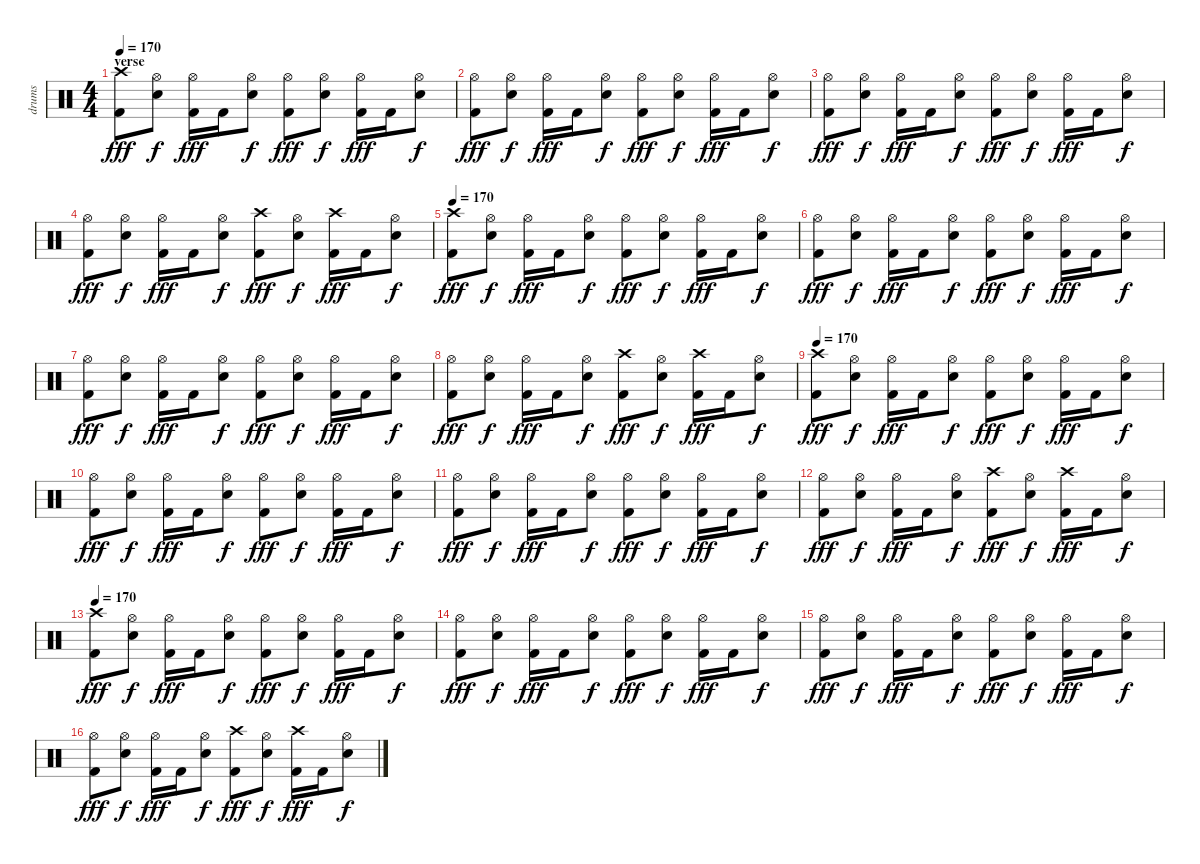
\track ("drums" "drums") {instrument percussion}
\staff {score}
\articulation defaults
\ts (4 4)
\section ("" "verse")
\tempo 170
\clef neutral
\ks c
("Crash high (hit)" "Kick (hit) 2").8{dy fff} ("Hi-Hat (open)" "Snare (hit) 2").8{dy f} ("Hi-Hat (open)" "Kick (hit) 2").16{dy fff} "Kick (hit) 2".16 ("Hi-Hat (open)" "Snare (hit) 2").8{dy f} ("Hi-Hat (open)" "Kick (hit) 2").8{dy fff} ("Hi-Hat (open)" "Snare (hit) 2").8{dy f} ("Hi-Hat (open)" "Kick (hit) 2").16{dy fff} "Kick (hit) 2".16 ("Hi-Hat (open)" "Snare (hit) 2").8{dy f} |
("Hi-Hat (open)" "Kick (hit) 2").8{dy fff} ("Hi-Hat (open)" "Snare (hit) 2").8{dy f} ("Hi-Hat (open)" "Kick (hit) 2").16{dy fff} "Kick (hit) 2".16 ("Hi-Hat (open)" "Snare (hit) 2").8{dy f} ("Hi-Hat (open)" "Kick (hit) 2").8{dy fff} ("Hi-Hat (open)" "Snare (hit) 2").8{dy f} ("Hi-Hat (open)" "Kick (hit) 2").16{dy fff} "Kick (hit) 2".16 ("Hi-Hat (open)" "Snare (hit) 2").8{dy f} |
("Hi-Hat (open)" "Kick (hit) 2").8{dy fff} ("Hi-Hat (open)" "Snare (hit) 2").8{dy f} ("Hi-Hat (open)" "Kick (hit) 2").16{dy fff} "Kick (hit) 2".16 ("Hi-Hat (open)" "Snare (hit) 2").8{dy f} ("Hi-Hat (open)" "Kick (hit) 2").8{dy fff} ("Hi-Hat (open)" "Snare (hit) 2").8{dy f} ("Hi-Hat (open)" "Kick (hit) 2").16{dy fff} "Kick (hit) 2".16 ("Hi-Hat (open)" "Snare (hit) 2").8{dy f} |
("Hi-Hat (open)" "Kick (hit) 2").8{dy fff} ("Hi-Hat (open)" "Snare (hit) 2").8{dy f} ("Hi-Hat (open)" "Kick (hit) 2").16{dy fff} "Kick (hit) 2".16 ("Hi-Hat (open)" "Snare (hit) 2").8{dy f} ("Crash high (hit)" "Kick (hit) 2").8{dy fff} ("Hi-Hat (open)" "Snare (hit) 2").8{dy f} ("Crash high (hit)" "Kick (hit) 2").16{dy fff} "Kick (hit) 2".16 ("Hi-Hat (open)" "Snare (hit) 2").8{dy f} |
\tempo 170
("Crash high (hit)" "Kick (hit) 2").8{dy fff} ("Hi-Hat (open)" "Snare (hit) 2").8{dy f} ("Hi-Hat (open)" "Kick (hit) 2").16{dy fff} "Kick (hit) 2".16 ("Hi-Hat (open)" "Snare (hit) 2").8{dy f} ("Hi-Hat (open)" "Kick (hit) 2").8{dy fff} ("Hi-Hat (open)" "Snare (hit) 2").8{dy f} ("Hi-Hat (open)" "Kick (hit) 2").16{dy fff} "Kick (hit) 2".16 ("Hi-Hat (open)" "Snare (hit) 2").8{dy f} |
("Hi-Hat (open)" "Kick (hit) 2").8{dy fff} ("Hi-Hat (open)" "Snare (hit) 2").8{dy f} ("Hi-Hat (open)" "Kick (hit) 2").16{dy fff} "Kick (hit) 2".16 ("Hi-Hat (open)" "Snare (hit) 2").8{dy f} ("Hi-Hat (open)" "Kick (hit) 2").8{dy fff} ("Hi-Hat (open)" "Snare (hit) 2").8{dy f} ("Hi-Hat (open)" "Kick (hit) 2").16{dy fff} "Kick (hit) 2".16 ("Hi-Hat (open)" "Snare (hit) 2").8{dy f} |
("Hi-Hat (open)" "Kick (hit) 2").8{dy fff} ("Hi-Hat (open)" "Snare (hit) 2").8{dy f} ("Hi-Hat (open)" "Kick (hit) 2").16{dy fff} "Kick (hit) 2".16 ("Hi-Hat (open)" "Snare (hit) 2").8{dy f} ("Hi-Hat (open)" "Kick (hit) 2").8{dy fff} ("Hi-Hat (open)" "Snare (hit) 2").8{dy f} ("Hi-Hat (open)" "Kick (hit) 2").16{dy fff} "Kick (hit) 2".16 ("Hi-Hat (open)" "Snare (hit) 2").8{dy f} |
("Hi-Hat (open)" "Kick (hit) 2").8{dy fff} ("Hi-Hat (open)" "Snare (hit) 2").8{dy f} ("Hi-Hat (open)" "Kick (hit) 2").16{dy fff} "Kick (hit) 2".16 ("Hi-Hat (open)" "Snare (hit) 2").8{dy f} ("Crash high (hit)" "Kick (hit) 2").8{dy fff} ("Hi-Hat (open)" "Snare (hit) 2").8{dy f} ("Crash high (hit)" "Kick (hit) 2").16{dy fff} "Kick (hit) 2".16 ("Hi-Hat (open)" "Snare (hit) 2").8{dy f} |
\tempo 170
("Crash high (hit)" "Kick (hit) 2").8{dy fff} ("Hi-Hat (open)" "Snare (hit) 2").8{dy f} ("Hi-Hat (open)" "Kick (hit) 2").16{dy fff} "Kick (hit) 2".16 ("Hi-Hat (open)" "Snare (hit) 2").8{dy f} ("Hi-Hat (open)" "Kick (hit) 2").8{dy fff} ("Hi-Hat (open)" "Snare (hit) 2").8{dy f} ("Hi-Hat (open)" "Kick (hit) 2").16{dy fff} "Kick (hit) 2".16 ("Hi-Hat (open)" "Snare (hit) 2").8{dy f} |
("Hi-Hat (open)" "Kick (hit) 2").8{dy fff} ("Hi-Hat (open)" "Snare (hit) 2").8{dy f} ("Hi-Hat (open)" "Kick (hit) 2").16{dy fff} "Kick (hit) 2".16 ("Hi-Hat (open)" "Snare (hit) 2").8{dy f} ("Hi-Hat (open)" "Kick (hit) 2").8{dy fff} ("Hi-Hat (open)" "Snare (hit) 2").8{dy f} ("Hi-Hat (open)" "Kick (hit) 2").16{dy fff} "Kick (hit) 2".16 ("Hi-Hat (open)" "Snare (hit) 2").8{dy f} |
("Hi-Hat (open)" "Kick (hit) 2").8{dy fff} ("Hi-Hat (open)" "Snare (hit) 2").8{dy f} ("Hi-Hat (open)" "Kick (hit) 2").16{dy fff} "Kick (hit) 2".16 ("Hi-Hat (open)" "Snare (hit) 2").8{dy f} ("Hi-Hat (open)" "Kick (hit) 2").8{dy fff} ("Hi-Hat (open)" "Snare (hit) 2").8{dy f} ("Hi-Hat (open)" "Kick (hit) 2").16{dy fff} "Kick (hit) 2".16 ("Hi-Hat (open)" "Snare (hit) 2").8{dy f} |
("Hi-Hat (open)" "Kick (hit) 2").8{dy fff} ("Hi-Hat (open)" "Snare (hit) 2").8{dy f} ("Hi-Hat (open)" "Kick (hit) 2").16{dy fff} "Kick (hit) 2".16 ("Hi-Hat (open)" "Snare (hit) 2").8{dy f} ("Crash high (hit)" "Kick (hit) 2").8{dy fff} ("Hi-Hat (open)" "Snare (hit) 2").8{dy f} ("Crash high (hit)" "Kick (hit) 2").16{dy fff} "Kick (hit) 2".16 ("Hi-Hat (open)" "Snare (hit) 2").8{dy f} |
\tempo 170
("Crash high (hit)" "Kick (hit) 2").8{dy fff} ("Hi-Hat (open)" "Snare (hit) 2").8{dy f} ("Hi-Hat (open)" "Kick (hit) 2").16{dy fff} "Kick (hit) 2".16 ("Hi-Hat (open)" "Snare (hit) 2").8{dy f} ("Hi-Hat (open)" "Kick (hit) 2").8{dy fff} ("Hi-Hat (open)" "Snare (hit) 2").8{dy f} ("Hi-Hat (open)" "Kick (hit) 2").16{dy fff} "Kick (hit) 2".16 ("Hi-Hat (open)" "Snare (hit) 2").8{dy f} |
("Hi-Hat (open)" "Kick (hit) 2").8{dy fff} ("Hi-Hat (open)" "Snare (hit) 2").8{dy f} ("Hi-Hat (open)" "Kick (hit) 2").16{dy fff} "Kick (hit) 2".16 ("Hi-Hat (open)" "Snare (hit) 2").8{dy f} ("Hi-Hat (open)" "Kick (hit) 2").8{dy fff} ("Hi-Hat (open)" "Snare (hit) 2").8{dy f} ("Hi-Hat (open)" "Kick (hit) 2").16{dy fff} "Kick (hit) 2".16 ("Hi-Hat (open)" "Snare (hit) 2").8{dy f} |
("Hi-Hat (open)" "Kick (hit) 2").8{dy fff} ("Hi-Hat (open)" "Snare (hit) 2").8{dy f} ("Hi-Hat (open)" "Kick (hit) 2").16{dy fff} "Kick (hit) 2".16 ("Hi-Hat (open)" "Snare (hit) 2").8{dy f} ("Hi-Hat (open)" "Kick (hit) 2").8{dy fff} ("Hi-Hat (open)" "Snare (hit) 2").8{dy f} ("Hi-Hat (open)" "Kick (hit) 2").16{dy fff} "Kick (hit) 2".16 ("Hi-Hat (open)" "Snare (hit) 2").8{dy f} |
("Hi-Hat (open)" "Kick (hit) 2").8{dy fff} ("Hi-Hat (open)" "Snare (hit) 2").8{dy f} ("Hi-Hat (open)" "Kick (hit) 2").16{dy fff} "Kick (hit) 2".16 ("Hi-Hat (open)" "Snare (hit) 2").8{dy f} ("Crash high (hit)" "Kick (hit) 2").8{dy fff} ("Hi-Hat (open)" "Snare (hit) 2").8{dy f} ("Crash high (hit)" "Kick (hit) 2").16{dy fff} "Kick (hit) 2".16 ("Hi-Hat (open)" "Snare (hit) 2").8{dy f}
